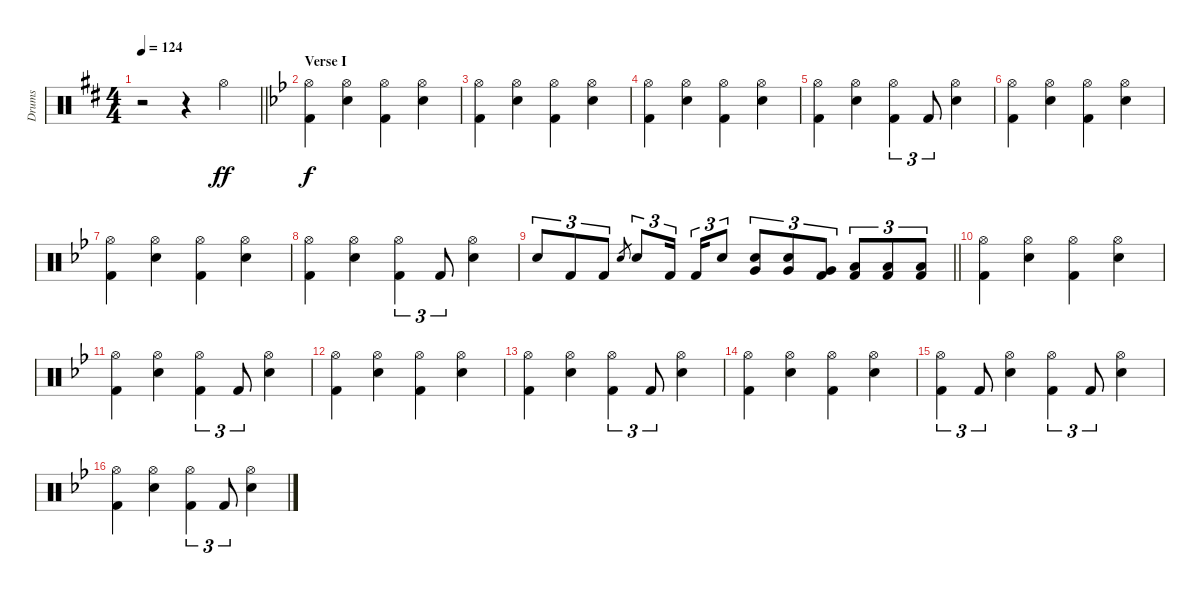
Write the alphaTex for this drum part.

\track ("Drums" "Drums") {instrument percussion}
\staff {score}
\articulation defaults
\ts (4 4)
\tempo 124
\clef neutral
\barLineRight lightlight
\ks d
r.2{dy ff} r.4 "Hi-Hat (open)".4 |
\section ("" "Verse I")
\ks bb
("Hi-Hat (open)" "Kick (hit) 2").4{dy f} ("Hi-Hat (open)" "Electric Snare (hit)").4 ("Hi-Hat (open)" "Kick (hit) 2").4 ("Hi-Hat (open)" "Electric Snare (hit)").4 |
("Hi-Hat (open)" "Kick (hit) 2").4 ("Hi-Hat (open)" "Electric Snare (hit)").4 ("Hi-Hat (open)" "Kick (hit) 2").4 ("Hi-Hat (open)" "Electric Snare (hit)").4 |
("Hi-Hat (open)" "Kick (hit) 2").4 ("Hi-Hat (open)" "Electric Snare (hit)").4 ("Hi-Hat (open)" "Kick (hit) 2").4 ("Hi-Hat (open)" "Electric Snare (hit)").4 |
("Hi-Hat (open)" "Kick (hit) 2").4 ("Hi-Hat (open)" "Electric Snare (hit)").4 ("Hi-Hat (open)" "Kick (hit) 2").4{tu (3 2)} "Kick (hit) 2".8{tu (3 2)} ("Hi-Hat (open)" "Electric Snare (hit)").4 |
("Hi-Hat (open)" "Kick (hit) 2").4 ("Hi-Hat (open)" "Electric Snare (hit)").4 ("Hi-Hat (open)" "Kick (hit) 2").4 ("Hi-Hat (open)" "Electric Snare (hit)").4 |
("Hi-Hat (open)" "Kick (hit) 2").4 ("Hi-Hat (open)" "Electric Snare (hit)").4 ("Hi-Hat (open)" "Kick (hit) 2").4 ("Hi-Hat (open)" "Electric Snare (hit)").4 |
("Hi-Hat (open)" "Kick (hit) 2").4 ("Hi-Hat (open)" "Electric Snare (hit)").4 ("Hi-Hat (open)" "Kick (hit) 2").4{tu (3 2)} "Kick (hit) 2".8{tu (3 2)} ("Hi-Hat (open)" "Electric Snare (hit)").4 |
\barLineRight lightlight "Electric Snare (hit)".8{tu (3 2)} "Kick (hit) 2".8{tu (3 2)} "Kick (hit) 2".8{tu (3 2)} "Snare (hit) 2".8{gr} "Electric Snare (hit)".8{tu (3 2)} "Kick (hit) 2".16{tu (3 2) beam splitsecondary} "Kick (hit) 2".16{tu (3 2)} "Electric Snare (hit)".8{tu (3 2)}
("Electric Snare (hit)" "Very Low Tom (hit)").8{tu (3 2)} ("Electric Snare (hit)" "Very Low Tom (hit)").8{tu (3 2)} ("Very Low Tom (hit)" "Kick (hit) 2").8{tu (3 2)} ("Low Floor Tom (hit)" "Kick (hit) 2").8{tu (3 2)} ("Low Floor Tom (hit)" "Kick (hit) 2").8{tu (3 2)} ("Low Floor Tom (hit)" "Kick (hit) 2").8{tu (3 2)} |
("Hi-Hat (open)" "Kick (hit) 2").4 ("Hi-Hat (open)" "Electric Snare (hit)").4 ("Hi-Hat (open)" "Kick (hit) 2").4 ("Hi-Hat (open)" "Electric Snare (hit)").4 |
("Hi-Hat (open)" "Kick (hit) 2").4 ("Hi-Hat (open)" "Electric Snare (hit)").4 ("Hi-Hat (open)" "Kick (hit) 2").4{tu (3 2)} "Kick (hit) 2".8{tu (3 2)} ("Hi-Hat (open)" "Electric Snare (hit)").4 |
("Hi-Hat (open)" "Kick (hit) 2").4 ("Hi-Hat (open)" "Electric Snare (hit)").4 ("Hi-Hat (open)" "Kick (hit) 2").4 ("Hi-Hat (open)" "Electric Snare (hit)").4 |
("Hi-Hat (open)" "Kick (hit) 2").4 ("Hi-Hat (open)" "Electric Snare (hit)").4 ("Hi-Hat (open)" "Kick (hit) 2").4{tu (3 2)} "Kick (hit) 2".8{tu (3 2)} ("Hi-Hat (open)" "Electric Snare (hit)").4 |
("Hi-Hat (open)" "Kick (hit) 2").4 ("Hi-Hat (open)" "Electric Snare (hit)").4 ("Hi-Hat (open)" "Kick (hit) 2").4 ("Hi-Hat (open)" "Electric Snare (hit)").4 |
("Hi-Hat (open)" "Kick (hit) 2").4{tu (3 2)} "Kick (hit) 2".8{tu (3 2)} ("Hi-Hat (open)" "Electric Snare (hit)").4 ("Hi-Hat (open)" "Kick (hit) 2").4{tu (3 2)} "Kick (hit) 2".8{tu (3 2)} ("Hi-Hat (open)" "Electric Snare (hit)").4 |
("Hi-Hat (open)" "Kick (hit) 2").4 ("Hi-Hat (open)" "Electric Snare (hit)").4 ("Hi-Hat (open)" "Kick (hit) 2").4{tu (3 2)} "Kick (hit) 2".8{tu (3 2)} ("Hi-Hat (open)" "Electric Snare (hit)").4
